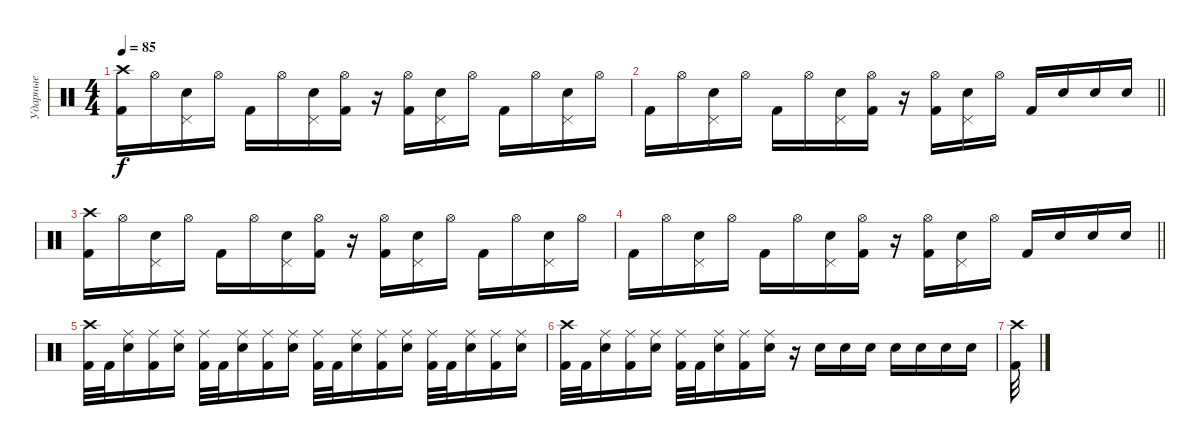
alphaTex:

\track ("Ударные" "Ударные") {instrument percussion}
\staff {score}
\articulation defaults
\ts (4 4)
\tempo 85
\clef neutral
\ks c
("Kick (hit) 2" "Crash high (hit)").16{dy f} "Hi-Hat (open)".16 ("Pedal Hi-Hat (hit)" "Electric Snare (hit)").16 "Hi-Hat (open)".16 "Kick (hit) 2".16 "Hi-Hat (open)".16 ("Pedal Hi-Hat (hit)" "Electric Snare (hit)").16 ("Kick (hit) 2" "Hi-Hat (open)").16 r.16 ("Kick (hit) 2" "Hi-Hat (open)").16 ("Pedal Hi-Hat (hit)" "Electric Snare (hit)").16 "Hi-Hat (open)".16 "Kick (hit) 2".16 "Hi-Hat (open)".16 ("Pedal Hi-Hat (hit)" "Electric Snare (hit)").16 "Hi-Hat (open)".16 |
\barLineRight lightlight "Kick (hit) 2".16 "Hi-Hat (open)".16
("Pedal Hi-Hat (hit)" "Electric Snare (hit)").16 "Hi-Hat (open)".16 "Kick (hit) 2".16 "Hi-Hat (open)".16 ("Pedal Hi-Hat (hit)" "Electric Snare (hit)").16 ("Kick (hit) 2" "Hi-Hat (open)").16 r.16 ("Kick (hit) 2" "Hi-Hat (open)").16 ("Pedal Hi-Hat (hit)" "Electric Snare (hit)").16 "Hi-Hat (open)".16 "Kick (hit) 2".16 "Electric Snare (hit)".16 "Electric Snare (hit)".16 "Electric Snare (hit)".16 |
("Kick (hit) 2" "Crash high (hit)").16 "Hi-Hat (open)".16 ("Pedal Hi-Hat (hit)" "Electric Snare (hit)").16 "Hi-Hat (open)".16 "Kick (hit) 2".16 "Hi-Hat (open)".16 ("Pedal Hi-Hat (hit)" "Electric Snare (hit)").16 ("Kick (hit) 2" "Hi-Hat (open)").16 r.16 ("Kick (hit) 2" "Hi-Hat (open)").16 ("Pedal Hi-Hat (hit)" "Electric Snare (hit)").16 "Hi-Hat (open)".16 "Kick (hit) 2".16 "Hi-Hat (open)".16 ("Pedal Hi-Hat (hit)" "Electric Snare (hit)").16 "Hi-Hat (open)".16 |
\barLineRight lightlight "Kick (hit) 2".16 "Hi-Hat (open)".16
("Pedal Hi-Hat (hit)" "Electric Snare (hit)").16 "Hi-Hat (open)".16 "Kick (hit) 2".16 "Hi-Hat (open)".16 ("Pedal Hi-Hat (hit)" "Electric Snare (hit)").16 ("Kick (hit) 2" "Hi-Hat (open)").16 r.16 ("Kick (hit) 2" "Hi-Hat (open)").16 ("Pedal Hi-Hat (hit)" "Electric Snare (hit)").16 "Hi-Hat (open)".16 "Kick (hit) 2".16 "Electric Snare (hit)".16 "Electric Snare (hit)".16 "Electric Snare (hit)".16 |
("Kick (hit) 2" "Crash high (hit)").32 "Kick (hit) 2".32 ("Electric Snare (hit)" "Ride (middle)").16 ("Kick (hit) 2" "Ride (middle)").16 ("Electric Snare (hit)" "Ride (middle)").16 ("Kick (hit) 2" "Ride (middle)").32 "Kick (hit) 2".32 ("Electric Snare (hit)" "Ride (middle)").16 ("Kick (hit) 2" "Ride (middle)").16 ("Electric Snare (hit)" "Ride (middle)").16 ("Kick (hit) 2" "Ride (middle)").32 "Kick (hit) 2".32 ("Electric Snare (hit)" "Ride (middle)").16 ("Kick (hit) 2" "Ride (middle)").16 ("Electric Snare (hit)" "Ride (middle)").16 ("Kick (hit) 2" "Ride (middle)").32 "Kick (hit) 2".32 ("Electric Snare (hit)" "Ride (middle)").16 ("Kick (hit) 2" "Ride (middle)").16 ("Electric Snare (hit)" "Ride (middle)").16 |
("Kick (hit) 2" "Crash high (hit)").32 "Kick (hit) 2".32 ("Electric Snare (hit)" "Ride (middle)").16 ("Kick (hit) 2" "Ride (middle)").16 ("Electric Snare (hit)" "Ride (middle)").16 ("Kick (hit) 2" "Ride (middle)").32 "Kick (hit) 2".32 ("Electric Snare (hit)" "Ride (middle)").16 ("Kick (hit) 2" "Ride (middle)").16 ("Electric Snare (hit)" "Ride (middle)").16 r.16 "Electric Snare (hit)".16 "Electric Snare (hit)".16 "Electric Snare (hit)".16 "Electric Snare (hit)".16 "Electric Snare (hit)".16 "Electric Snare (hit)".16 "Electric Snare (hit)".16 |
("Kick (hit) 2" "Crash high (hit)").32
